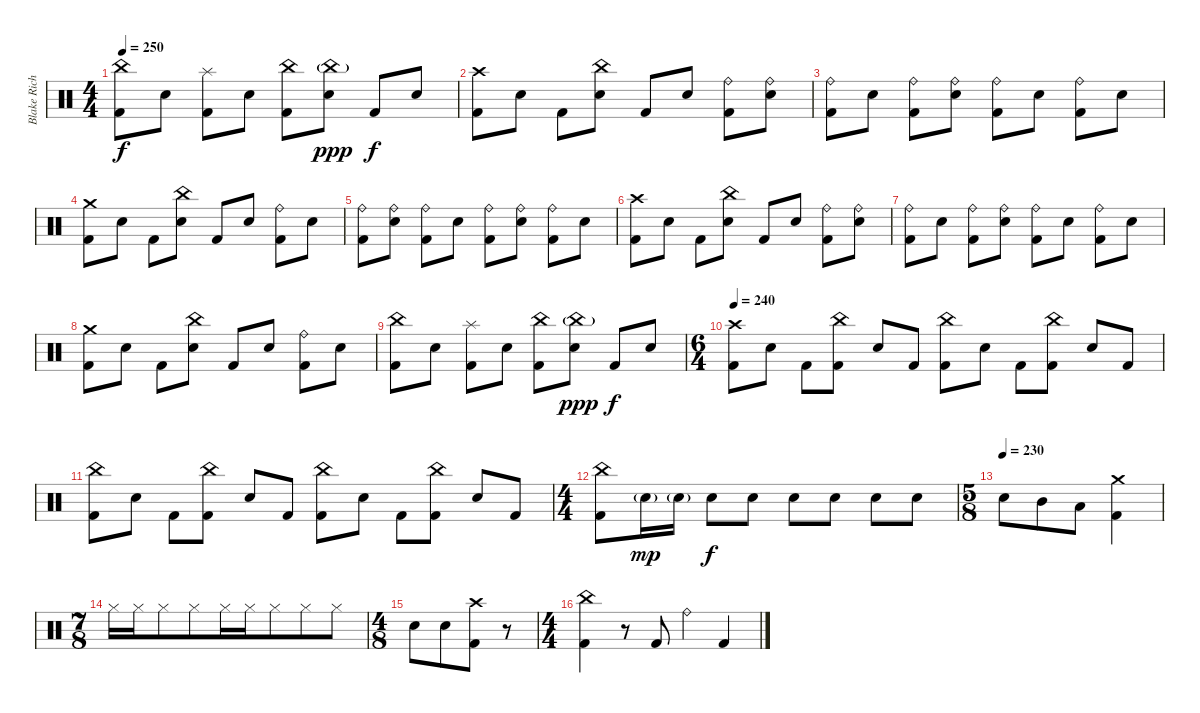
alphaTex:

\track ("Blake Richardson - Drums" "Blake Rich") {instrument percussion}
\staff {score}
\articulation defaults
\ts (4 4)
\tempo 250
\clef neutral
\ks c
("China (hit)" "Kick (hit) 2").8{dy f} "Electric Snare (hit)".8 ("Splash (hit)" "Kick (hit) 2").8 "Electric Snare (hit)".8 ("China (hit)" "Kick (hit) 2").8 ("China (hit)"{g} "Electric Snare (hit)").8{dy ppp} "Kick (hit) 2".8{dy f} "Electric Snare (hit)".8 |
("Crash high (hit)" "Kick (hit) 2").8 "Electric Snare (hit)".8 "Kick (hit) 2".8 ("China (hit)" "Electric Snare (hit)").8 "Kick (hit) 2".8 "Electric Snare (hit)".8 ("Ride (bell)" "Kick (hit) 2").8 ("Ride (bell)" "Electric Snare (hit)").8 |
("Ride (bell)" "Kick (hit) 2").8 "Electric Snare (hit)".8 ("Ride (bell)" "Kick (hit) 2").8 ("Ride (bell)" "Electric Snare (hit)").8 ("Ride (bell)" "Kick (hit) 2").8 "Electric Snare (hit)".8 ("Ride (bell)" "Kick (hit) 2").8 "Electric Snare (hit)".8 |
("Crash medium (hit)" "Kick (hit) 2").8 "Electric Snare (hit)".8 "Kick (hit) 2".8 ("China (hit)" "Electric Snare (hit)").8 "Kick (hit) 2".8 "Electric Snare (hit)".8 ("Ride (bell)" "Kick (hit) 2").8 "Electric Snare (hit)".8 |
("Ride (bell)" "Kick (hit) 2").8 ("Ride (bell)" "Electric Snare (hit)").8 ("Ride (bell)" "Kick (hit) 2").8 "Electric Snare (hit)".8 ("Ride (bell)" "Kick (hit) 2").8 ("Ride (bell)" "Electric Snare (hit)").8 ("Ride (bell)" "Kick (hit) 2").8 "Electric Snare (hit)".8 |
("Crash high (hit)" "Kick (hit) 2").8 "Electric Snare (hit)".8 "Kick (hit) 2".8 ("China (hit)" "Electric Snare (hit)").8 "Kick (hit) 2".8 "Electric Snare (hit)".8 ("Ride (bell)" "Kick (hit) 2").8 ("Ride (bell)" "Electric Snare (hit)").8 |
("Ride (bell)" "Kick (hit) 2").8 "Electric Snare (hit)".8 ("Ride (bell)" "Kick (hit) 2").8 ("Ride (bell)" "Electric Snare (hit)").8 ("Ride (bell)" "Kick (hit) 2").8 "Electric Snare (hit)".8 ("Ride (bell)" "Kick (hit) 2").8 "Electric Snare (hit)".8 |
("Crash medium (hit)" "Kick (hit) 2").8 "Electric Snare (hit)".8 "Kick (hit) 2".8 ("China (hit)" "Electric Snare (hit)").8 "Kick (hit) 2".8 "Electric Snare (hit)".8 ("Ride (bell)" "Kick (hit) 2").8 "Electric Snare (hit)".8 |
("China (hit)" "Kick (hit) 2").8 "Electric Snare (hit)".8 ("Splash (hit)" "Kick (hit) 2").8 "Electric Snare (hit)".8 ("China (hit)" "Kick (hit) 2").8 ("China (hit)"{g} "Electric Snare (hit)").8{dy ppp} "Kick (hit) 2".8{dy f} "Electric Snare (hit)".8 |
\ts (6 4)
\tempo 240
("Crash high (hit)" "Kick (hit) 2").8 "Electric Snare (hit)".8 "Kick (hit) 2".8 ("China (hit)" "Kick (hit) 2").8 "Electric Snare (hit)".8 "Kick (hit) 2".8 ("China (hit)" "Kick (hit) 2").8 "Electric Snare (hit)".8 "Kick (hit) 2".8 ("China (hit)" "Kick (hit) 2").8 "Electric Snare (hit)".8 "Kick (hit) 2".8 |
("China (hit)" "Kick (hit) 2").8 "Electric Snare (hit)".8 "Kick (hit) 2".8 ("China (hit)" "Kick (hit) 2").8 "Electric Snare (hit)".8 "Kick (hit) 2".8 ("China (hit)" "Kick (hit) 2").8 "Electric Snare (hit)".8 "Kick (hit) 2".8 ("China (hit)" "Kick (hit) 2").8 "Electric Snare (hit)".8 "Kick (hit) 2".8 |
\ts (4 4)
("China (hit)" "Kick (hit) 2").8 "Electric Snare (hit)"{g}.16{dy mp} "Electric Snare (hit)"{g}.16 "Electric Snare (hit)".8{dy f} "Electric Snare (hit)".8 "Electric Snare (hit)".8 "Electric Snare (hit)".8 "Electric Snare (hit)".8 "Electric Snare (hit)".8 |
\ts (5 8)
\tempo (230)
"Electric Snare (hit)".8 "Mid Tom (hit)".8 "Low Tom (hit)".8 ("Crash medium (hit)" "Kick (hit) 2").4 |
\ts (7 8)
"Hi-Hat (closed)".16 "Hi-Hat (closed)".16{beam merge} "Hi-Hat (closed)".8{beam merge} "Hi-Hat (closed)".8 "Hi-Hat (closed)".16 "Hi-Hat (closed)".16{beam merge} "Hi-Hat (closed)".8 "Hi-Hat (closed)".8 "Hi-Hat (closed)".8 |
\ts (4 8)
"Electric Snare (hit)".8 "Electric Snare (hit)".8{beam merge} ("Crash high (hit)" "Kick (hit) 2").8 r.8 |
\ts (4 4)
("China (hit)" "Kick (hit) 2").4 r.8 "Kick (hit) 2".8 "Ride (bell)".4 "Kick (hit) 2".4
